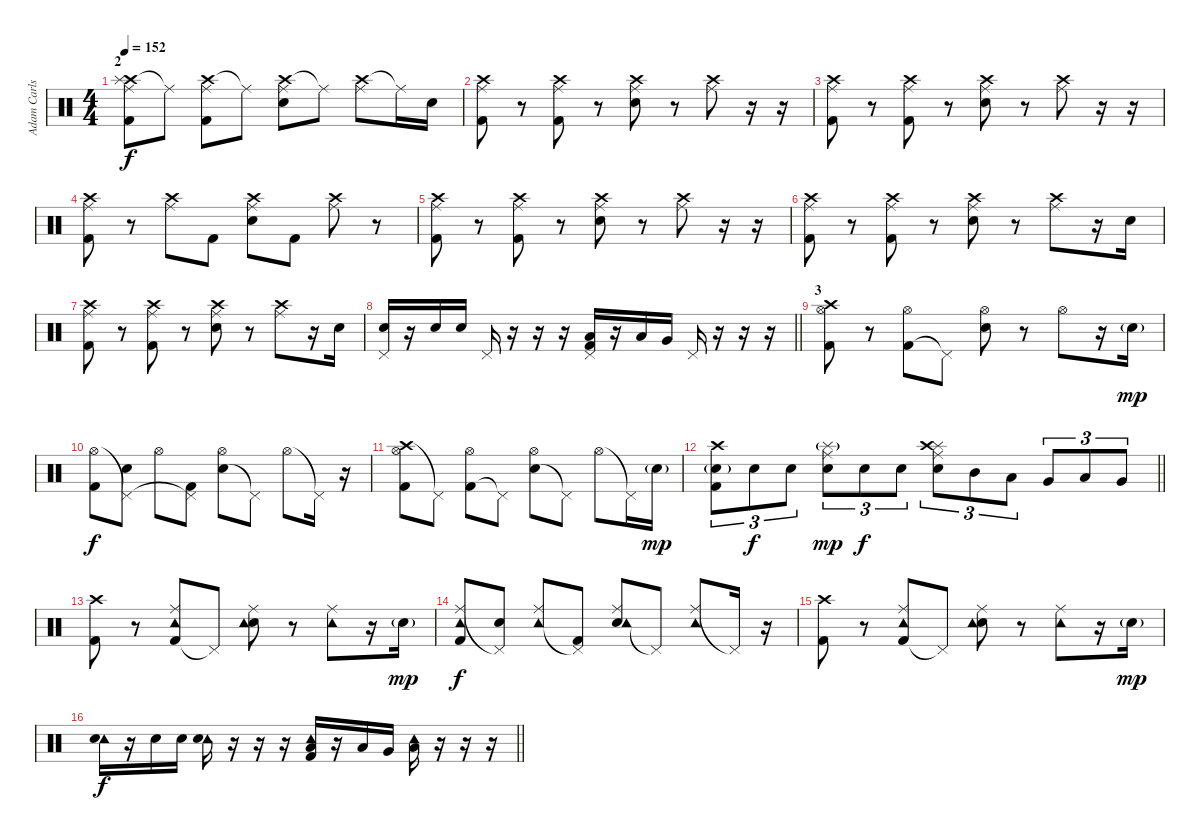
\track ("Adam Carlson" "Adam Carls") {instrument percussion}
\staff {score}
\articulation defaults
\ts (4 4)
\section ("" "2")
\tempo 152
\clef neutral
\ks c
("Crash high (hit)" "Splash (hit)" "Ride (middle)" "Kick (hit) 2").8{dy f} "Ride (middle)"{t}.8 ("Crash high (hit)" "Ride (middle)" "Kick (hit) 2").8 "Ride (middle)"{t}.8 ("Crash high (hit)" "Snare (hit) 2" "Ride (middle)").8 "Ride (middle)"{t}.8 ("Crash high (hit)" "Ride (middle)").8 "Ride (middle)"{t}.16 "Snare (hit) 2".16 |
("Crash high (hit)" "Ride (middle)" "Kick (hit) 2").8 r.8 ("Crash high (hit)" "Ride (middle)" "Kick (hit) 2").8 r.8 ("Crash high (hit)" "Snare (hit) 2" "Ride (middle)").8 r.8 ("Crash high (hit)" "Ride (middle)").8 r.16 r.16 |
("Crash high (hit)" "Ride (middle)" "Kick (hit) 2").8 r.8 ("Crash high (hit)" "Ride (middle)" "Kick (hit) 2").8 r.8 ("Crash high (hit)" "Snare (hit) 2" "Ride (middle)").8 r.8 ("Crash high (hit)" "Ride (middle)").8 r.16 r.16 |
("Crash high (hit)" "Ride (middle)" "Kick (hit) 2").8 r.8 ("Crash high (hit)" "Ride (middle)").8 "Kick (hit) 2".8 ("Crash high (hit)" "Snare (hit) 2" "Ride (middle)").8 "Kick (hit) 2".8 ("Crash high (hit)" "Ride (middle)").8 r.8 |
("Crash high (hit)" "Ride (middle)" "Kick (hit) 2").8 r.8 ("Crash high (hit)" "Ride (middle)" "Kick (hit) 2").8 r.8 ("Crash high (hit)" "Snare (hit) 2" "Ride (middle)").8 r.8 ("Crash high (hit)" "Ride (middle)").8 r.16 r.16 |
("Crash high (hit)" "Ride (middle)" "Kick (hit) 2").8 r.8 ("Crash high (hit)" "Ride (middle)" "Kick (hit) 2").8 r.8 ("Crash high (hit)" "Snare (hit) 2" "Ride (middle)").8 r.8 ("Crash high (hit)" "Ride (middle)").8 r.16 "Snare (hit) 2".16 |
("Crash high (hit)" "Ride (middle)" "Kick (hit) 2").8 r.8 ("Crash high (hit)" "Ride (middle)" "Kick (hit) 2").8 r.8 ("Crash high (hit)" "Snare (hit) 2" "Ride (middle)").8 r.8 ("Crash high (hit)" "Ride (middle)").8 r.16 "Snare (hit) 2".16 |
\barLineRight lightlight
("Pedal Hi-Hat (hit)" "Snare (hit) 2").16 r.16 "Snare (hit) 2".16 "Snare (hit) 2".16 "Pedal Hi-Hat (hit)".16 r.16 r.16 r.16 ("Pedal Hi-Hat (hit)" "Low Tom (hit)" "Kick (hit) 2").16{bd 120} r.16 "Low Tom (hit)".16 "Very Low Tom (hit)".16 "Pedal Hi-Hat (hit)".16 r.16 r.16 r.16 |
\section ("" "3")
("Crash high (hit)" "Kick (hit) 2" "Hi-Hat (open)").8 r.8 ("Kick (hit) 2" "Hi-Hat (open)").8 "Pedal Hi-Hat (hit)"{t}.8 ("Snare (hit) 2" "Hi-Hat (open)").8 r.8 "Hi-Hat (open)".8 r.16 "Snare (hit) 2"{g}.16{dy mp} |
("Kick (hit) 2" "Hi-Hat (open)").8{dy f} ("Snare (hit) 2" "Pedal Hi-Hat (hit)"{t}).8 "Hi-Hat (open)".8 ("Kick (hit) 2" "Pedal Hi-Hat (hit)"{t}).8 ("Snare (hit) 2" "Hi-Hat (open)").8 "Pedal Hi-Hat (hit)"{t}.8 "Hi-Hat (open)".8 "Pedal Hi-Hat (hit)"{t}.16 r.16 |
("Crash high (hit)" "Kick (hit) 2" "Hi-Hat (open)").8 "Pedal Hi-Hat (hit)"{t}.8 ("Kick (hit) 2" "Hi-Hat (open)").8 "Pedal Hi-Hat (hit)"{t}.8 ("Snare (hit) 2" "Hi-Hat (open)").8 "Pedal Hi-Hat (hit)"{t}.8 "Hi-Hat (open)".8 "Pedal Hi-Hat (hit)"{t}.16 "Snare (hit) 2"{g}.16{dy mp} |
\barLineRight lightlight
("Snare (hit) 2"{g} "Crash high (hit)" "Kick (hit) 2").8{tu (3 2)} "Snare (hit) 2".8{tu (3 2) dy f} "Snare (hit) 2".8{tu (3 2)} ("Snare (hit) 2" "Ride (middle)" "Splash (hit)"{g}).8{tu (3 2) dy mp} "Snare (hit) 2".8{tu (3 2) dy f} "Snare (hit) 2".8{tu (3 2)} ("Snare (hit) 2" "Ride (middle)" "Splash (hit)" "Crash high (hit)").8{tu (3 2)} "Mid Tom (hit)".8{tu (3 2)} "Low Tom (hit)".8{tu (3 2)} "Very Low Tom (hit)".8{tu (3 2)} "Low Tom (hit)".8{tu (3 2)} "Very Low Tom (hit)".8{tu (3 2)} |
("Crash high (hit)" "Kick (hit) 2").8 r.8 ("Kick (hit) 2" "Ride (middle)" "Tambourine (hit)").8 "Pedal Hi-Hat (hit)"{t}.8 ("Snare (hit) 2" "Ride (middle)" "Tambourine (hit)").8 r.8 ("Ride (middle)" "Tambourine (hit)").8 r.16 "Snare (hit) 2"{g}.16{dy mp} |
("Kick (hit) 2" "Ride (middle)" "Tambourine (hit)").8{dy f} ("Snare (hit) 2" "Pedal Hi-Hat (hit)"{t}).8 ("Ride (middle)" "Tambourine (hit)").8 ("Kick (hit) 2" "Pedal Hi-Hat (hit)"{t}).8 ("Snare (hit) 2" "Ride (middle)" "Tambourine (hit)").8 "Pedal Hi-Hat (hit)"{t}.8 ("Ride (middle)" "Tambourine (hit)").8 "Pedal Hi-Hat (hit)"{t}.16 r.16 |
("Crash high (hit)" "Kick (hit) 2").8 r.8 ("Kick (hit) 2" "Ride (middle)" "Tambourine (hit)").8 "Pedal Hi-Hat (hit)"{t}.8 ("Snare (hit) 2" "Ride (middle)" "Tambourine (hit)").8 r.8 ("Ride (middle)" "Tambourine (hit)").8 r.16 "Snare (hit) 2"{g}.16{dy mp} |
\barLineRight lightlight
("Tambourine (hit)" "Snare (hit) 2").16{dy f} r.16 "Snare (hit) 2".16 "Snare (hit) 2".16 ("Tambourine (hit)" "Snare (hit) 2").16 r.16 r.16 r.16 ("Tambourine (hit)" "Low Tom (hit)" "Kick (hit) 2").16{bd 120} r.16 "Low Tom (hit)".16 "Very Low Tom (hit)".16 ("Tambourine (hit)" "Low Tom (hit)").16 r.16 r.16 r.16
